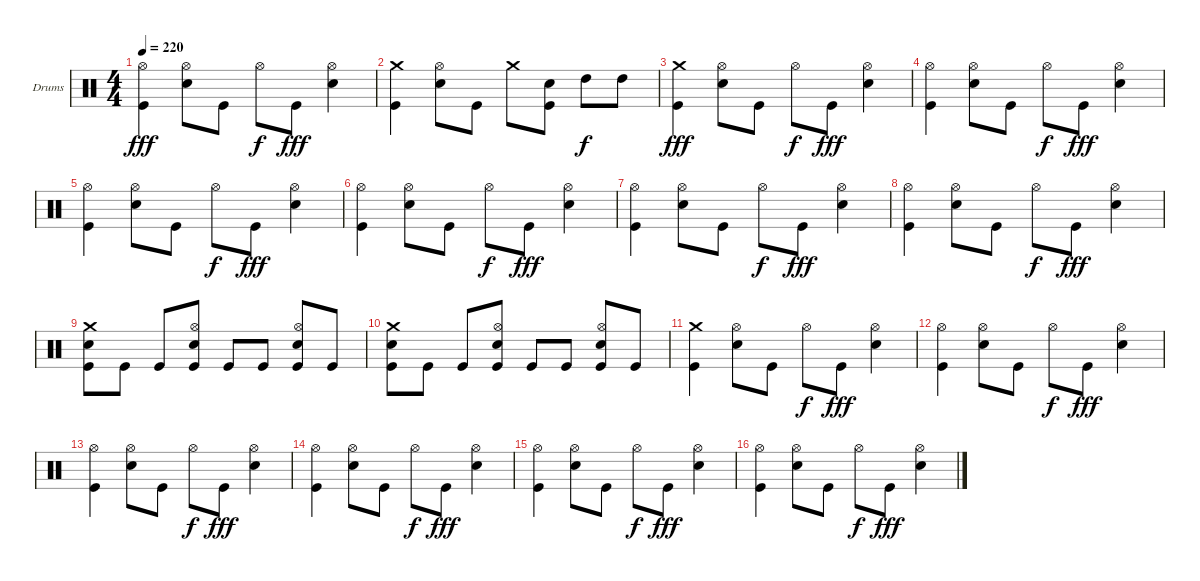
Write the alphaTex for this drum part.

\bracketExtendMode groupsimilarinstruments
\firstSystemTrackNameOrientation horizontal
\otherSystemsTrackNameOrientation horizontal
\track ("Stefan Schwarzmann" "Drums") {instrument percussion}
\staff {score}
\articulation defaults
\ts (4 4)
\tempo 220
\clef neutral
\ks c
("Kick (hit)" "Hi-Hat (open)").4{dy fff} ("Snare (hit) 2" "Hi-Hat (open)").8 "Kick (hit)".8 "Hi-Hat (open)".8{dy f} "Kick (hit)".8{dy fff} ("Snare (hit) 2" "Hi-Hat (open)").4 |
("Kick (hit)" "Crash medium (hit)").4 ("Snare (hit) 2" "Hi-Hat (open)").8 "Kick (hit)".8 "Crash medium (hit)".8 ("Kick (hit)" "Snare (hit) 2").8 "High Tom (hit)".8{dy f} "High Tom (hit)".8 |
("Kick (hit)" "Crash medium (hit)").4{dy fff} ("Snare (hit) 2" "Hi-Hat (open)").8 "Kick (hit)".8 "Hi-Hat (open)".8{dy f} "Kick (hit)".8{dy fff} ("Snare (hit) 2" "Hi-Hat (open)").4 |
("Kick (hit)" "Hi-Hat (open)").4 ("Snare (hit) 2" "Hi-Hat (open)").8 "Kick (hit)".8 "Hi-Hat (open)".8{dy f} "Kick (hit)".8{dy fff} ("Snare (hit) 2" "Hi-Hat (open)").4 |
("Kick (hit)" "Hi-Hat (open)").4 ("Snare (hit) 2" "Hi-Hat (open)").8 "Kick (hit)".8 "Hi-Hat (open)".8{dy f} "Kick (hit)".8{dy fff} ("Snare (hit) 2" "Hi-Hat (open)").4 |
("Kick (hit)" "Hi-Hat (open)").4 ("Snare (hit) 2" "Hi-Hat (open)").8 "Kick (hit)".8 "Hi-Hat (open)".8{dy f} "Kick (hit)".8{dy fff} ("Snare (hit) 2" "Hi-Hat (open)").4 |
("Kick (hit)" "Hi-Hat (open)").4 ("Snare (hit) 2" "Hi-Hat (open)").8 "Kick (hit)".8 "Hi-Hat (open)".8{dy f} "Kick (hit)".8{dy fff} ("Snare (hit) 2" "Hi-Hat (open)").4 |
("Kick (hit)" "Hi-Hat (open)").4 ("Snare (hit) 2" "Hi-Hat (open)").8 "Kick (hit)".8 "Hi-Hat (open)".8{dy f} "Kick (hit)".8{dy fff} ("Snare (hit) 2" "Hi-Hat (open)").4 |
("Kick (hit)" "Snare (hit) 2" "Crash medium (hit)").8 "Kick (hit)".8 "Kick (hit)".8 ("Kick (hit)" "Snare (hit) 2" "Hi-Hat (open)").8 "Kick (hit)".8 "Kick (hit)".8 ("Kick (hit)" "Snare (hit) 2" "Hi-Hat (open)").8 "Kick (hit)".8 |
("Kick (hit)" "Snare (hit) 2" "Crash medium (hit)").8 "Kick (hit)".8 "Kick (hit)".8 ("Kick (hit)" "Snare (hit) 2" "Hi-Hat (open)").8 "Kick (hit)".8 "Kick (hit)".8 ("Kick (hit)" "Snare (hit) 2" "Hi-Hat (open)").8 "Kick (hit)".8 |
("Kick (hit)" "Crash medium (hit)").4 ("Snare (hit) 2" "Hi-Hat (open)").8 "Kick (hit)".8 "Hi-Hat (open)".8{dy f} "Kick (hit)".8{dy fff} ("Snare (hit) 2" "Hi-Hat (open)").4 |
("Kick (hit)" "Hi-Hat (open)").4 ("Snare (hit) 2" "Hi-Hat (open)").8 "Kick (hit)".8 "Hi-Hat (open)".8{dy f} "Kick (hit)".8{dy fff} ("Snare (hit) 2" "Hi-Hat (open)").4 |
("Kick (hit)" "Hi-Hat (open)").4 ("Snare (hit) 2" "Hi-Hat (open)").8 "Kick (hit)".8 "Hi-Hat (open)".8{dy f} "Kick (hit)".8{dy fff} ("Snare (hit) 2" "Hi-Hat (open)").4 |
("Kick (hit)" "Hi-Hat (open)").4 ("Snare (hit) 2" "Hi-Hat (open)").8 "Kick (hit)".8 "Hi-Hat (open)".8{dy f} "Kick (hit)".8{dy fff} ("Snare (hit) 2" "Hi-Hat (open)").4 |
("Kick (hit)" "Hi-Hat (open)").4 ("Snare (hit) 2" "Hi-Hat (open)").8 "Kick (hit)".8 "Hi-Hat (open)".8{dy f} "Kick (hit)".8{dy fff} ("Snare (hit) 2" "Hi-Hat (open)").4 |
("Kick (hit)" "Hi-Hat (open)").4 ("Snare (hit) 2" "Hi-Hat (open)").8 "Kick (hit)".8 "Hi-Hat (open)".8{dy f} "Kick (hit)".8{dy fff} ("Snare (hit) 2" "Hi-Hat (open)").4
